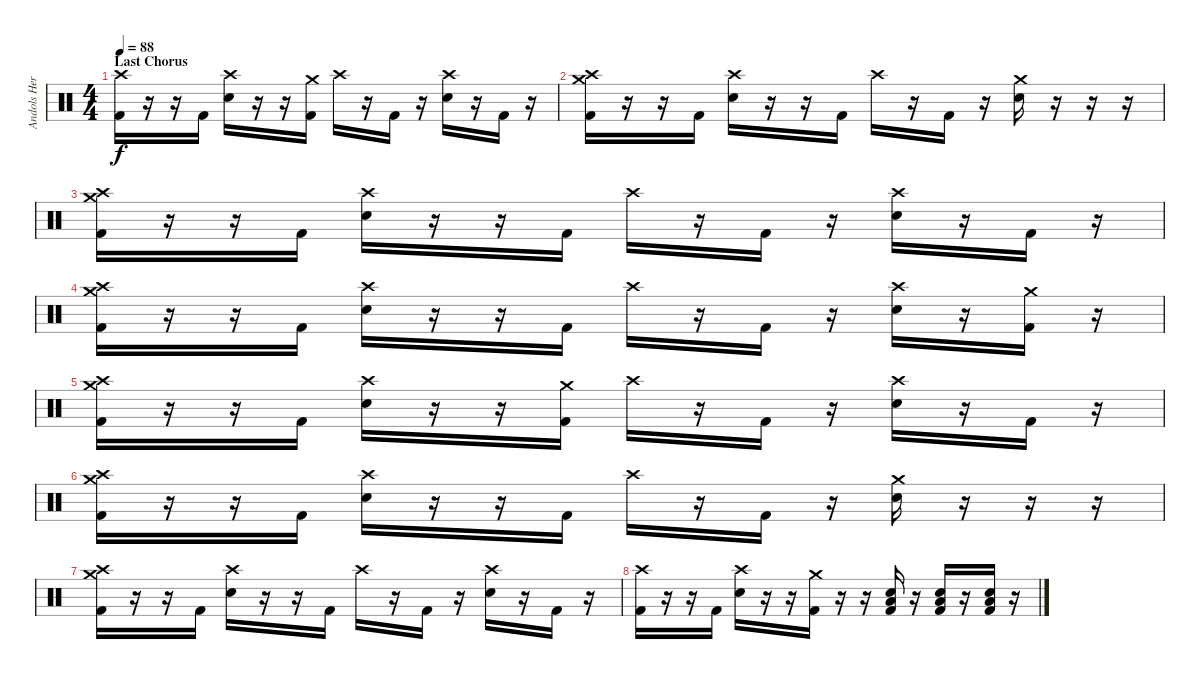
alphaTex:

\track ("Andols Herrick" "Andols Her") {instrument percussion}
\staff {score}
\articulation defaults
\ts (4 4)
\section ("" "Last Chorus")
\tempo 88
\clef neutral
\ks c
("Crash high (hit)" "Kick (hit) 2").16{dy f} r.16 r.16 "Kick (hit) 2".16 ("Crash high (hit)" "Snare (hit) 2").16 r.16 r.16 ("Crash medium (hit)" "Kick (hit) 2").16 "Crash high (hit)".16 r.16 "Kick (hit) 2".16 r.16 ("Crash high (hit)" "Snare (hit) 2").16 r.16 "Kick (hit) 2".16 r.16 |
("Crash high (hit)" "Crash medium (hit)" "Kick (hit) 2").16 r.16 r.16 "Kick (hit) 2".16 ("Crash high (hit)" "Snare (hit) 2").16 r.16 r.16 "Kick (hit) 2".16 "Crash high (hit)".16 r.16 "Kick (hit) 2".16 r.16 ("Crash medium (hit)" "Snare (hit) 2").16 r.16 r.16 r.16 |
("Crash high (hit)" "Crash medium (hit)" "Kick (hit) 2").16 r.16 r.16 "Kick (hit) 2".16 ("Crash high (hit)" "Snare (hit) 2").16 r.16 r.16 "Kick (hit) 2".16 "Crash high (hit)".16 r.16 "Kick (hit) 2".16 r.16 ("Crash high (hit)" "Snare (hit) 2").16 r.16 "Kick (hit) 2".16 r.16 |
("Crash high (hit)" "Crash medium (hit)" "Kick (hit) 2").16 r.16 r.16 "Kick (hit) 2".16 ("Crash high (hit)" "Snare (hit) 2").16 r.16 r.16 "Kick (hit) 2".16 "Crash high (hit)".16 r.16 "Kick (hit) 2".16 r.16 ("Crash high (hit)" "Snare (hit) 2").16 r.16 ("Crash medium (hit)" "Kick (hit) 2").16 r.16 |
("Crash high (hit)" "Crash medium (hit)" "Kick (hit) 2").16 r.16 r.16 "Kick (hit) 2".16 ("Crash high (hit)" "Snare (hit) 2").16 r.16 r.16 ("Crash medium (hit)" "Kick (hit) 2").16 "Crash high (hit)".16 r.16 "Kick (hit) 2".16 r.16 ("Crash high (hit)" "Snare (hit) 2").16 r.16 "Kick (hit) 2".16 r.16 |
("Crash high (hit)" "Crash medium (hit)" "Kick (hit) 2").16 r.16 r.16 "Kick (hit) 2".16 ("Crash high (hit)" "Snare (hit) 2").16 r.16 r.16 "Kick (hit) 2".16 "Crash high (hit)".16 r.16 "Kick (hit) 2".16 r.16 ("Crash medium (hit)" "Snare (hit) 2").16 r.16 r.16 r.16 |
("Crash high (hit)" "Crash medium (hit)" "Kick (hit) 2").16 r.16 r.16 "Kick (hit) 2".16 ("Crash high (hit)" "Snare (hit) 2").16 r.16 r.16 "Kick (hit) 2".16 "Crash high (hit)".16 r.16 "Kick (hit) 2".16 r.16 ("Crash high (hit)" "Snare (hit) 2").16 r.16 "Kick (hit) 2".16 r.16 |
("Crash high (hit)" "Kick (hit) 2").16 r.16 r.16 "Kick (hit) 2".16 ("Crash high (hit)" "Snare (hit) 2").16 r.16 r.16 ("Crash medium (hit)" "Kick (hit) 2").16 r.16 r.16 ("Low Floor Tom (hit)" "Snare (hit) 2" "Kick (hit) 2").16 r.16 ("Low Floor Tom (hit)" "Snare (hit) 2" "Kick (hit) 2").16 r.16 ("Low Floor Tom (hit)" "Snare (hit) 2" "Kick (hit) 2").16 r.16
